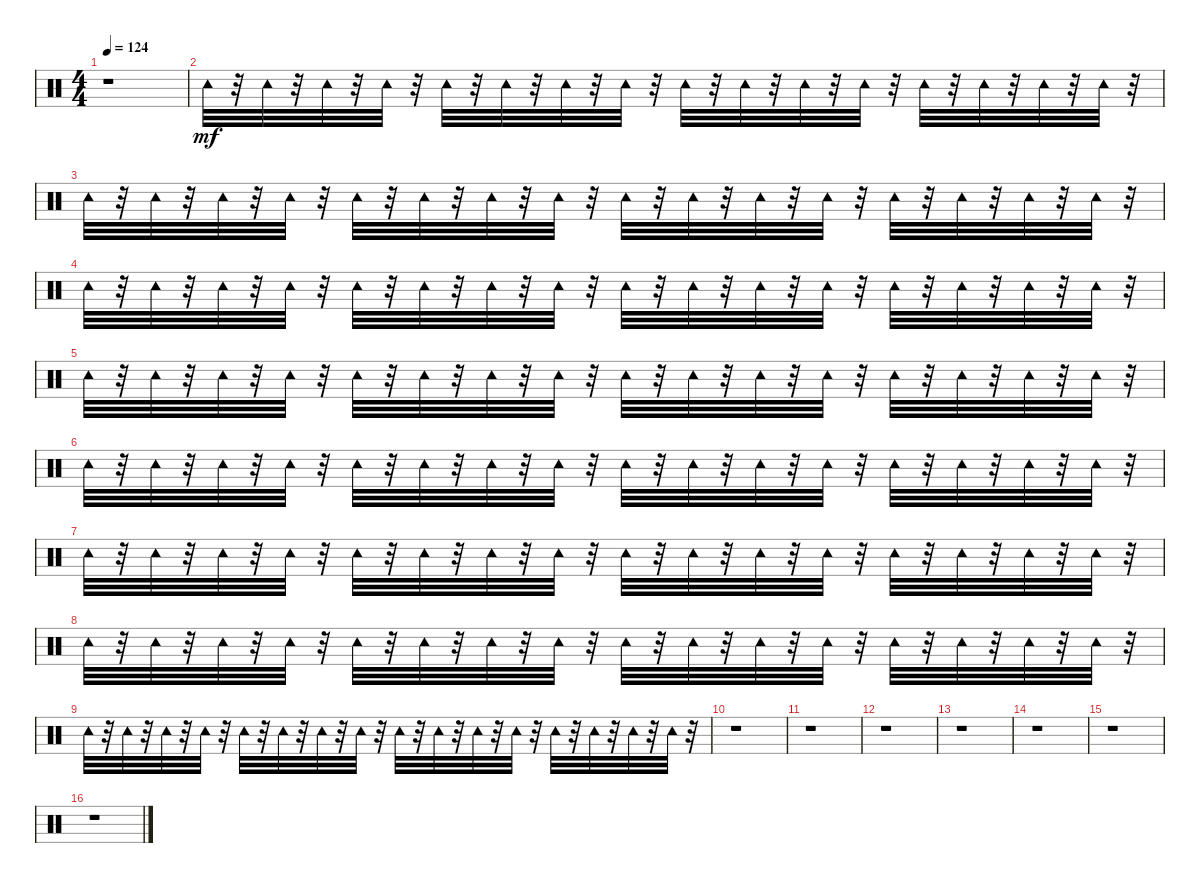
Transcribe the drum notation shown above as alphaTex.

\track "" {instrument percussion}
\staff {score}
\articulation defaults
\ts (4 4)
\tempo 124
\clef neutral
\ks c
r.1{dy mf} |
"Tambourine (hit)".32 r.32 "Tambourine (hit)".32 r.32 "Tambourine (hit)".32 r.32 "Tambourine (hit)".32 r.32 "Tambourine (hit)".32 r.32 "Tambourine (hit)".32 r.32 "Tambourine (hit)".32 r.32 "Tambourine (hit)".32 r.32 "Tambourine (hit)".32 r.32 "Tambourine (hit)".32 r.32 "Tambourine (hit)".32 r.32 "Tambourine (hit)".32 r.32 "Tambourine (hit)".32 r.32 "Tambourine (hit)".32 r.32 "Tambourine (hit)".32 r.32 "Tambourine (hit)".32 r.32 |
"Tambourine (hit)".32 r.32 "Tambourine (hit)".32 r.32 "Tambourine (hit)".32 r.32 "Tambourine (hit)".32 r.32 "Tambourine (hit)".32 r.32 "Tambourine (hit)".32 r.32 "Tambourine (hit)".32 r.32 "Tambourine (hit)".32 r.32 "Tambourine (hit)".32 r.32 "Tambourine (hit)".32 r.32 "Tambourine (hit)".32 r.32 "Tambourine (hit)".32 r.32 "Tambourine (hit)".32 r.32 "Tambourine (hit)".32 r.32 "Tambourine (hit)".32 r.32 "Tambourine (hit)".32 r.32 |
"Tambourine (hit)".32 r.32 "Tambourine (hit)".32 r.32 "Tambourine (hit)".32 r.32 "Tambourine (hit)".32 r.32 "Tambourine (hit)".32 r.32 "Tambourine (hit)".32 r.32 "Tambourine (hit)".32 r.32 "Tambourine (hit)".32 r.32 "Tambourine (hit)".32 r.32 "Tambourine (hit)".32 r.32 "Tambourine (hit)".32 r.32 "Tambourine (hit)".32 r.32 "Tambourine (hit)".32 r.32 "Tambourine (hit)".32 r.32 "Tambourine (hit)".32 r.32 "Tambourine (hit)".32 r.32 |
"Tambourine (hit)".32 r.32 "Tambourine (hit)".32 r.32 "Tambourine (hit)".32 r.32 "Tambourine (hit)".32 r.32 "Tambourine (hit)".32 r.32 "Tambourine (hit)".32 r.32 "Tambourine (hit)".32 r.32 "Tambourine (hit)".32 r.32 "Tambourine (hit)".32 r.32 "Tambourine (hit)".32 r.32 "Tambourine (hit)".32 r.32 "Tambourine (hit)".32 r.32 "Tambourine (hit)".32 r.32 "Tambourine (hit)".32 r.32 "Tambourine (hit)".32 r.32 "Tambourine (hit)".32 r.32 |
"Tambourine (hit)".32 r.32 "Tambourine (hit)".32 r.32 "Tambourine (hit)".32 r.32 "Tambourine (hit)".32 r.32 "Tambourine (hit)".32 r.32 "Tambourine (hit)".32 r.32 "Tambourine (hit)".32 r.32 "Tambourine (hit)".32 r.32 "Tambourine (hit)".32 r.32 "Tambourine (hit)".32 r.32 "Tambourine (hit)".32 r.32 "Tambourine (hit)".32 r.32 "Tambourine (hit)".32 r.32 "Tambourine (hit)".32 r.32 "Tambourine (hit)".32 r.32 "Tambourine (hit)".32 r.32 |
"Tambourine (hit)".32 r.32 "Tambourine (hit)".32 r.32 "Tambourine (hit)".32 r.32 "Tambourine (hit)".32 r.32 "Tambourine (hit)".32 r.32 "Tambourine (hit)".32 r.32 "Tambourine (hit)".32 r.32 "Tambourine (hit)".32 r.32 "Tambourine (hit)".32 r.32 "Tambourine (hit)".32 r.32 "Tambourine (hit)".32 r.32 "Tambourine (hit)".32 r.32 "Tambourine (hit)".32 r.32 "Tambourine (hit)".32 r.32 "Tambourine (hit)".32 r.32 "Tambourine (hit)".32 r.32 |
"Tambourine (hit)".32 r.32 "Tambourine (hit)".32 r.32 "Tambourine (hit)".32 r.32 "Tambourine (hit)".32 r.32 "Tambourine (hit)".32 r.32 "Tambourine (hit)".32 r.32 "Tambourine (hit)".32 r.32 "Tambourine (hit)".32 r.32 "Tambourine (hit)".32 r.32 "Tambourine (hit)".32 r.32 "Tambourine (hit)".32 r.32 "Tambourine (hit)".32 r.32 "Tambourine (hit)".32 r.32 "Tambourine (hit)".32 r.32 "Tambourine (hit)".32 r.32 "Tambourine (hit)".32 r.32 |
"Tambourine (hit)".32 r.32 "Tambourine (hit)".32 r.32 "Tambourine (hit)".32 r.32 "Tambourine (hit)".32 r.32 "Tambourine (hit)".32 r.32 "Tambourine (hit)".32 r.32 "Tambourine (hit)".32 r.32 "Tambourine (hit)".32 r.32 "Tambourine (hit)".32 r.32 "Tambourine (hit)".32 r.32 "Tambourine (hit)".32 r.32 "Tambourine (hit)".32 r.32 "Tambourine (hit)".32 r.32 "Tambourine (hit)".32 r.32 "Tambourine (hit)".32 r.32 "Tambourine (hit)".32 r.32 |
r.1 |
r.1 |
r.1 |
r.1 |
r.1 |
r.1 |
r.1
